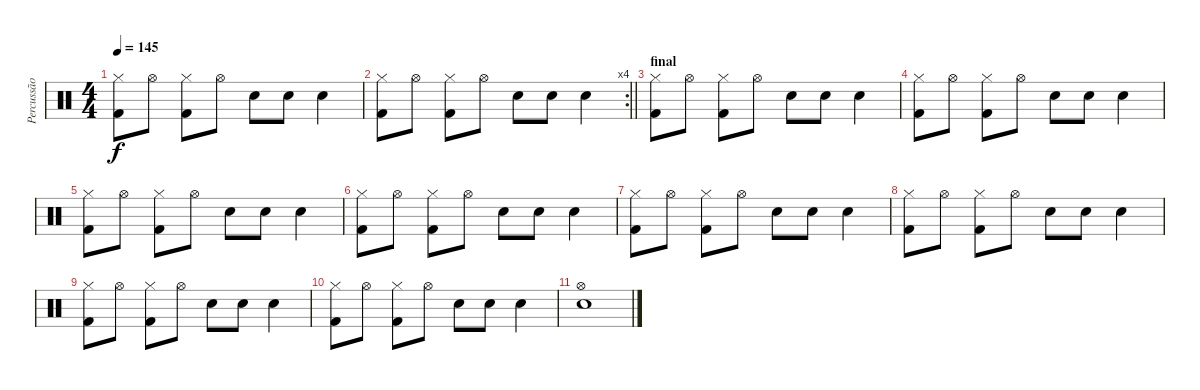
\track ("Percussão" "Percussão") {instrument percussion}
\staff {score}
\articulation defaults
\ts (4 4)
\tempo 145
\clef neutral
\ks c
("Hi-Hat (closed)" "Kick (hit) 2").8{dy f} "Hi-Hat (open)".8 ("Hi-Hat (closed)" "Kick (hit) 2").8 "Hi-Hat (open)".8 "Snare (hit) 2".8 "Snare (hit) 2".8 "Snare (hit) 2".4 |
\rc 4
\barLineRight lightlight
("Hi-Hat (closed)" "Kick (hit) 2").8 "Hi-Hat (open)".8 ("Hi-Hat (closed)" "Kick (hit) 2").8 "Hi-Hat (open)".8 "Snare (hit) 2".8 "Snare (hit) 2".8 "Snare (hit) 2".4 |
\section ("" "final")
("Hi-Hat (closed)" "Kick (hit) 2").8 "Hi-Hat (open)".8 ("Hi-Hat (closed)" "Kick (hit) 2").8 "Hi-Hat (open)".8 "Snare (hit) 2".8 "Snare (hit) 2".8 "Snare (hit) 2".4 |
("Hi-Hat (closed)" "Kick (hit) 2").8 "Hi-Hat (open)".8 ("Hi-Hat (closed)" "Kick (hit) 2").8 "Hi-Hat (open)".8 "Snare (hit) 2".8 "Snare (hit) 2".8 "Snare (hit) 2".4 |
("Hi-Hat (closed)" "Kick (hit) 2").8 "Hi-Hat (open)".8 ("Hi-Hat (closed)" "Kick (hit) 2").8 "Hi-Hat (open)".8 "Snare (hit) 2".8 "Snare (hit) 2".8 "Snare (hit) 2".4 |
("Hi-Hat (closed)" "Kick (hit) 2").8 "Hi-Hat (open)".8 ("Hi-Hat (closed)" "Kick (hit) 2").8 "Hi-Hat (open)".8 "Snare (hit) 2".8 "Snare (hit) 2".8 "Snare (hit) 2".4 |
("Hi-Hat (closed)" "Kick (hit) 2").8 "Hi-Hat (open)".8 ("Hi-Hat (closed)" "Kick (hit) 2").8 "Hi-Hat (open)".8 "Snare (hit) 2".8 "Snare (hit) 2".8 "Snare (hit) 2".4 |
("Hi-Hat (closed)" "Kick (hit) 2").8 "Hi-Hat (open)".8 ("Hi-Hat (closed)" "Kick (hit) 2").8 "Hi-Hat (open)".8 "Snare (hit) 2".8 "Snare (hit) 2".8 "Snare (hit) 2".4 |
("Hi-Hat (closed)" "Kick (hit) 2").8 "Hi-Hat (open)".8 ("Hi-Hat (closed)" "Kick (hit) 2").8 "Hi-Hat (open)".8 "Snare (hit) 2".8 "Snare (hit) 2".8 "Snare (hit) 2".4 |
("Hi-Hat (closed)" "Kick (hit) 2").8 "Hi-Hat (open)".8 ("Hi-Hat (closed)" "Kick (hit) 2").8 "Hi-Hat (open)".8 "Snare (hit) 2".8 "Snare (hit) 2".8 "Snare (hit) 2".4 |
("Hi-Hat (open)" "Snare (hit) 2").1
